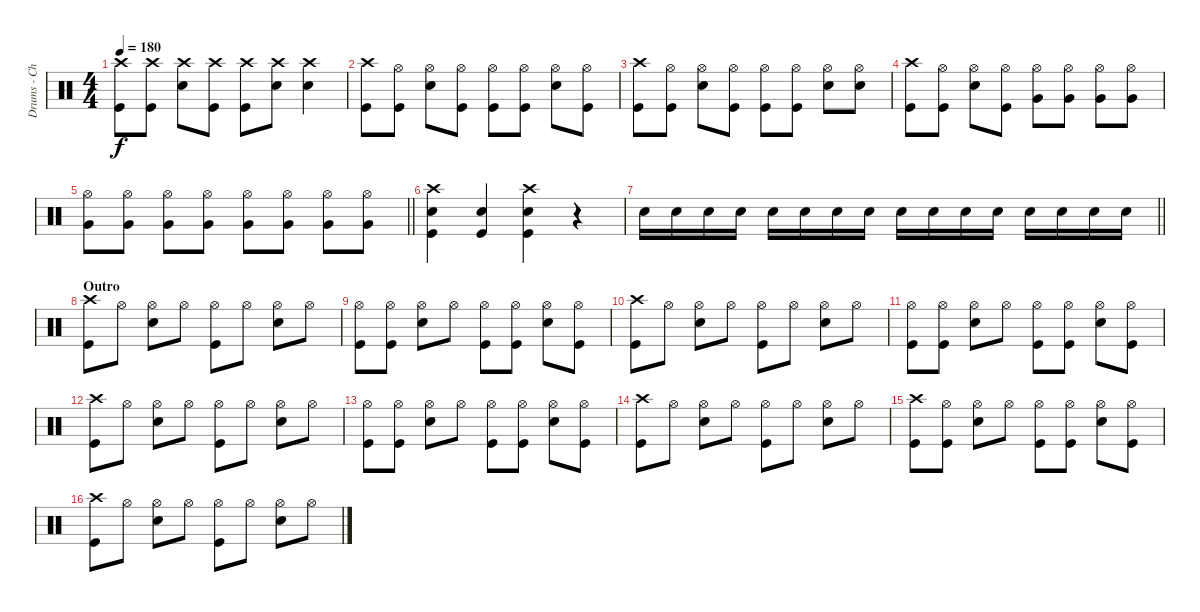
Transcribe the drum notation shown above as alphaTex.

\track ("Drums - Chris Dangerous" "Drums - Ch") {instrument percussion}
\staff {score}
\articulation defaults
\ts (4 4)
\tempo 180
\clef neutral
\ks c
("Crash high (hit)" "Kick (hit)").8{dy f} ("Crash high (hit)" "Kick (hit)").8 ("Crash high (hit)" "Snare (hit) 2").8 ("Crash high (hit)" "Kick (hit)").8 ("Crash high (hit)" "Kick (hit)").8 ("Crash high (hit)" "Snare (hit) 2").8 ("Crash high (hit)" "Snare (hit) 2").4 |
("Crash high (hit)" "Kick (hit)").8 ("Hi-Hat (open)" "Kick (hit)").8 ("Hi-Hat (open)" "Snare (hit) 2").8 ("Hi-Hat (open)" "Kick (hit)").8 ("Hi-Hat (open)" "Kick (hit)").8 ("Hi-Hat (open)" "Kick (hit)").8 ("Hi-Hat (open)" "Snare (hit) 2").8 ("Hi-Hat (open)" "Kick (hit)").8 |
("Crash high (hit)" "Kick (hit)").8 ("Hi-Hat (open)" "Kick (hit)").8 ("Hi-Hat (open)" "Snare (hit) 2").8 ("Hi-Hat (open)" "Kick (hit)").8 ("Hi-Hat (open)" "Kick (hit)").8 ("Hi-Hat (open)" "Kick (hit)").8 ("Hi-Hat (open)" "Snare (hit) 2").8 ("Hi-Hat (open)" "Snare (hit) 2").8 |
("Crash high (hit)" "Kick (hit)").8 ("Hi-Hat (open)" "Kick (hit)").8 ("Hi-Hat (open)" "Snare (hit) 2").8 ("Hi-Hat (open)" "Kick (hit)").8 ("Hi-Hat (open)" "Very Low Tom (hit)").8 ("Hi-Hat (open)" "Very Low Tom (hit)").8 ("Hi-Hat (open)" "Very Low Tom (hit)").8 ("Hi-Hat (open)" "Very Low Tom (hit)").8 |
\barLineRight lightlight
("Hi-Hat (open)" "Very Low Tom (hit)").8 ("Hi-Hat (open)" "Very Low Tom (hit)").8 ("Hi-Hat (open)" "Very Low Tom (hit)").8 ("Hi-Hat (open)" "Very Low Tom (hit)").8 ("Hi-Hat (open)" "Very Low Tom (hit)").8 ("Hi-Hat (open)" "Very Low Tom (hit)").8 ("Hi-Hat (open)" "Very Low Tom (hit)").8 ("Hi-Hat (open)" "Very Low Tom (hit)").8 |
\section ("" "")
("Crash high (hit)" "Kick (hit)" "Snare (hit) 2").4 ("Snare (hit) 2" "Kick (hit)").4 ("Crash high (hit)" "Kick (hit)" "Snare (hit) 2").4 r.4 |
\barLineRight lightlight "Snare (hit) 2".16 "Snare (hit) 2".16 "Snare (hit) 2".16 "Snare (hit) 2".16 "Snare (hit) 2".16 "Snare (hit) 2".16 "Snare (hit) 2".16 "Snare (hit) 2".16 "Snare (hit) 2".16 "Snare (hit) 2".16 "Snare (hit) 2".16 "Snare (hit) 2".16 "Snare (hit) 2".16 "Snare (hit) 2".16 "Snare (hit) 2".16 "Snare (hit) 2".16
|
\section ("" "Outro")
("Crash high (hit)" "Kick (hit)").8 "Hi-Hat (open)".8 ("Hi-Hat (open)" "Snare (hit) 2").8 "Hi-Hat (open)".8 ("Hi-Hat (open)" "Kick (hit)").8 "Hi-Hat (open)".8 ("Hi-Hat (open)" "Snare (hit) 2").8 "Hi-Hat (open)".8 |
("Hi-Hat (open)" "Kick (hit)").8 ("Hi-Hat (open)" "Kick (hit)").8 ("Hi-Hat (open)" "Snare (hit) 2").8 "Hi-Hat (open)".8 ("Hi-Hat (open)" "Kick (hit)").8 ("Hi-Hat (open)" "Kick (hit)").8 ("Hi-Hat (open)" "Snare (hit) 2").8 ("Hi-Hat (open)" "Kick (hit)").8 |
("Crash high (hit)" "Kick (hit)").8 "Hi-Hat (open)".8 ("Hi-Hat (open)" "Snare (hit) 2").8 "Hi-Hat (open)".8 ("Hi-Hat (open)" "Kick (hit)").8 "Hi-Hat (open)".8 ("Hi-Hat (open)" "Snare (hit) 2").8 "Hi-Hat (open)".8 |
("Hi-Hat (open)" "Kick (hit)").8 ("Hi-Hat (open)" "Kick (hit)").8 ("Hi-Hat (open)" "Snare (hit) 2").8 "Hi-Hat (open)".8 ("Hi-Hat (open)" "Kick (hit)").8 ("Hi-Hat (open)" "Kick (hit)").8 ("Hi-Hat (open)" "Snare (hit) 2").8 ("Hi-Hat (open)" "Kick (hit)").8 |
("Crash high (hit)" "Kick (hit)").8 "Hi-Hat (open)".8 ("Hi-Hat (open)" "Snare (hit) 2").8 "Hi-Hat (open)".8 ("Hi-Hat (open)" "Kick (hit)").8 "Hi-Hat (open)".8 ("Hi-Hat (open)" "Snare (hit) 2").8 "Hi-Hat (open)".8 |
("Hi-Hat (open)" "Kick (hit)").8 ("Hi-Hat (open)" "Kick (hit)").8 ("Hi-Hat (open)" "Snare (hit) 2").8 "Hi-Hat (open)".8 ("Hi-Hat (open)" "Kick (hit)").8 ("Hi-Hat (open)" "Kick (hit)").8 ("Hi-Hat (open)" "Snare (hit) 2").8 ("Hi-Hat (open)" "Kick (hit)").8 |
("Crash high (hit)" "Kick (hit)").8 "Hi-Hat (open)".8 ("Hi-Hat (open)" "Snare (hit) 2").8 "Hi-Hat (open)".8 ("Hi-Hat (open)" "Kick (hit)").8 "Hi-Hat (open)".8 ("Hi-Hat (open)" "Snare (hit) 2").8 "Hi-Hat (open)".8 |
("Crash high (hit)" "Kick (hit)").8 ("Hi-Hat (open)" "Kick (hit)").8 ("Hi-Hat (open)" "Snare (hit) 2").8 "Hi-Hat (open)".8 ("Hi-Hat (open)" "Kick (hit)").8 ("Hi-Hat (open)" "Kick (hit)").8 ("Hi-Hat (open)" "Snare (hit) 2").8 ("Hi-Hat (open)" "Kick (hit)").8 |
("Crash high (hit)" "Kick (hit)").8 "Hi-Hat (open)".8 ("Hi-Hat (open)" "Snare (hit) 2").8 "Hi-Hat (open)".8 ("Hi-Hat (open)" "Kick (hit)").8 "Hi-Hat (open)".8 ("Hi-Hat (open)" "Snare (hit) 2").8 "Hi-Hat (open)".8
